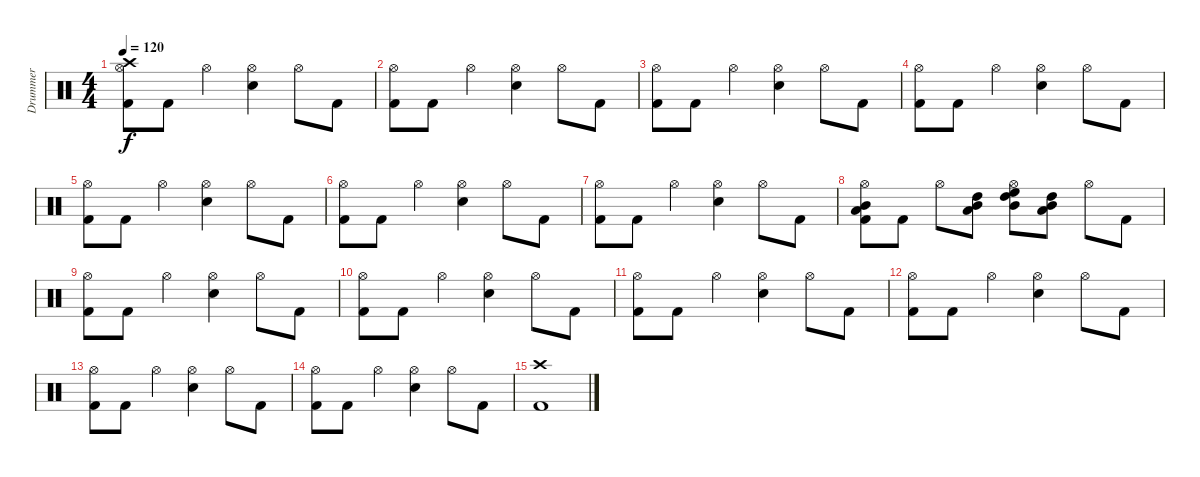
\track ("Drummer" "Drummer") {instrument percussion}
\staff {score}
\articulation defaults
\ts (4 4)
\tempo 120
\clef neutral
\ks c
("Crash high (hit)" "Hi-Hat (open)" "Kick (hit) 2").8{dy f} "Kick (hit) 2".8 "Hi-Hat (open)".4 ("Hi-Hat (open)" "Snare (hit) 2").4 "Hi-Hat (open)".8 "Kick (hit) 2".8 |
("Hi-Hat (open)" "Kick (hit) 2").8 "Kick (hit) 2".8 "Hi-Hat (open)".4 ("Hi-Hat (open)" "Snare (hit) 2").4 "Hi-Hat (open)".8 "Kick (hit) 2".8 |
("Hi-Hat (open)" "Kick (hit) 2").8 "Kick (hit) 2".8 "Hi-Hat (open)".4 ("Hi-Hat (open)" "Snare (hit) 2").4 "Hi-Hat (open)".8 "Kick (hit) 2".8 |
("Hi-Hat (open)" "Kick (hit) 2").8 "Kick (hit) 2".8 "Hi-Hat (open)".4 ("Hi-Hat (open)" "Snare (hit) 2").4 "Hi-Hat (open)".8 "Kick (hit) 2".8 |
("Hi-Hat (open)" "Kick (hit) 2").8 "Kick (hit) 2".8 "Hi-Hat (open)".4 ("Hi-Hat (open)" "Snare (hit) 2").4 "Hi-Hat (open)".8 "Kick (hit) 2".8 |
("Hi-Hat (open)" "Kick (hit) 2").8 "Kick (hit) 2".8 "Hi-Hat (open)".4 ("Hi-Hat (open)" "Snare (hit) 2").4 "Hi-Hat (open)".8 "Kick (hit) 2".8 |
("Hi-Hat (open)" "Kick (hit) 2").8 "Kick (hit) 2".8 "Hi-Hat (open)".4 ("Hi-Hat (open)" "Snare (hit) 2").4 "Hi-Hat (open)".8 "Kick (hit) 2".8 |
("Hi-Hat (open)" "Mid Tom (hit)" "Low Tom (hit)" "Kick (hit) 2").8 "Kick (hit) 2".8 "Hi-Hat (open)".8 ("High Tom (hit)" "Mid Tom (hit)" "Low Tom (hit)").8 ("Hi-Hat (open)" "High Floor Tom (hit)" "High Tom (hit)" "Mid Tom (hit)").8 ("High Tom (hit)" "Mid Tom (hit)" "Low Tom (hit)").8 "Hi-Hat (open)".8 "Kick (hit) 2".8 |
("Hi-Hat (open)" "Kick (hit) 2").8 "Kick (hit) 2".8 "Hi-Hat (open)".4 ("Hi-Hat (open)" "Snare (hit) 2").4 "Hi-Hat (open)".8 "Kick (hit) 2".8 |
("Hi-Hat (open)" "Kick (hit) 2").8 "Kick (hit) 2".8 "Hi-Hat (open)".4 ("Hi-Hat (open)" "Snare (hit) 2").4 "Hi-Hat (open)".8 "Kick (hit) 2".8 |
("Hi-Hat (open)" "Kick (hit) 2").8 "Kick (hit) 2".8 "Hi-Hat (open)".4 ("Hi-Hat (open)" "Snare (hit) 2").4 "Hi-Hat (open)".8 "Kick (hit) 2".8 |
("Hi-Hat (open)" "Kick (hit) 2").8 "Kick (hit) 2".8 "Hi-Hat (open)".4 ("Hi-Hat (open)" "Snare (hit) 2").4 "Hi-Hat (open)".8 "Kick (hit) 2".8 |
("Hi-Hat (open)" "Kick (hit) 2").8 "Kick (hit) 2".8 "Hi-Hat (open)".4 ("Hi-Hat (open)" "Snare (hit) 2").4 "Hi-Hat (open)".8 "Kick (hit) 2".8 |
("Hi-Hat (open)" "Kick (hit) 2").8 "Kick (hit) 2".8 "Hi-Hat (open)".4 ("Hi-Hat (open)" "Snare (hit) 2").4 "Hi-Hat (open)".8 "Kick (hit) 2".8 |
("Crash high (hit)" "Kick (hit) 2").1
